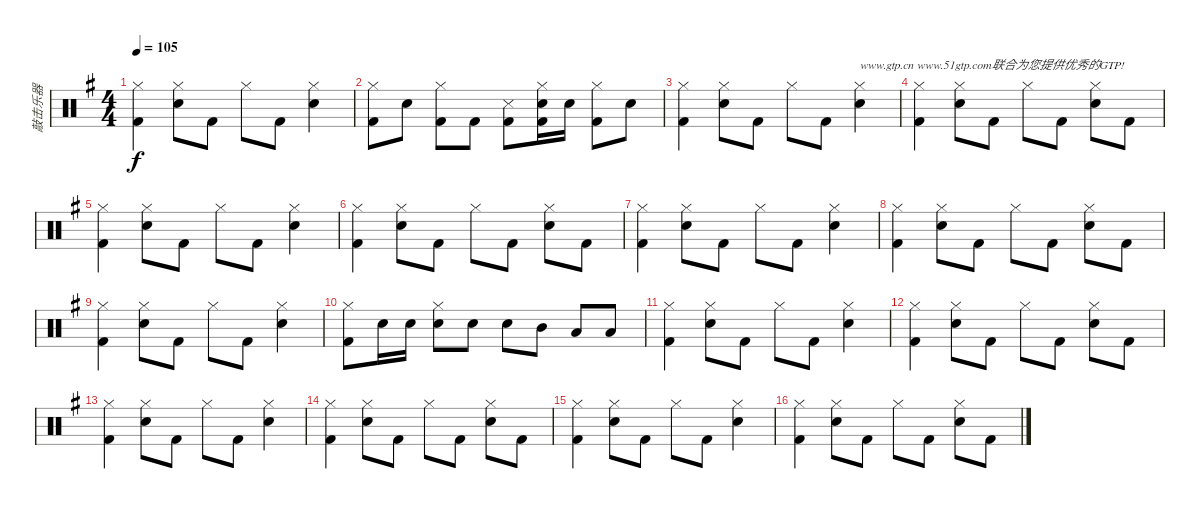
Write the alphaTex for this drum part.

\track ("敲击乐器" "敲击乐器") {instrument percussion}
\staff {score}
\articulation defaults
\ts (4 4)
\tempo 105
\clef neutral
\ks g
("Hi-Hat (closed)" "Kick (hit) 2").4{dy f} ("Hi-Hat (closed)" "Snare (hit) 2").8 "Kick (hit) 2".8 "Hi-Hat (closed)".8 "Kick (hit) 2".8 ("Hi-Hat (closed)" "Snare (hit) 2").4 |
("Hi-Hat (closed)" "Kick (hit) 2").8 "Snare (hit) 2".8 ("Hi-Hat (closed)" "Kick (hit) 2").8 "Kick (hit) 2".8 ("Snare (side stick) 3" "Kick (hit) 2").8 ("Hi-Hat (closed)" "Snare (hit) 2" "Kick (hit) 2").16 "Snare (hit) 2".16 ("Hi-Hat (closed)" "Kick (hit) 2").8 "Snare (hit) 2".8 |
("Hi-Hat (closed)" "Kick (hit) 2").4 ("Hi-Hat (closed)" "Snare (hit) 2").8 "Kick (hit) 2".8 "Hi-Hat (closed)".8 "Kick (hit) 2".8 ("Hi-Hat (closed)" "Snare (hit) 2").4{txt "www.gtp.cn www.51gtp.com联合为您提供优秀的GTP!"} |
("Hi-Hat (closed)" "Kick (hit) 2").4 ("Hi-Hat (closed)" "Snare (hit) 2").8 "Kick (hit) 2".8 "Hi-Hat (closed)".8 "Kick (hit) 2".8 ("Hi-Hat (closed)" "Snare (hit) 2").8 "Kick (hit) 2".8 |
("Hi-Hat (closed)" "Kick (hit) 2").4 ("Hi-Hat (closed)" "Snare (hit) 2").8 "Kick (hit) 2".8 "Hi-Hat (closed)".8 "Kick (hit) 2".8 ("Hi-Hat (closed)" "Snare (hit) 2").4 |
("Hi-Hat (closed)" "Kick (hit) 2").4 ("Hi-Hat (closed)" "Snare (hit) 2").8 "Kick (hit) 2".8 "Hi-Hat (closed)".8 "Kick (hit) 2".8 ("Hi-Hat (closed)" "Snare (hit) 2").8 "Kick (hit) 2".8 |
("Hi-Hat (closed)" "Kick (hit) 2").4 ("Hi-Hat (closed)" "Snare (hit) 2").8 "Kick (hit) 2".8 "Hi-Hat (closed)".8 "Kick (hit) 2".8 ("Hi-Hat (closed)" "Snare (hit) 2").4 |
("Hi-Hat (closed)" "Kick (hit) 2").4 ("Hi-Hat (closed)" "Snare (hit) 2").8 "Kick (hit) 2".8 "Hi-Hat (closed)".8 "Kick (hit) 2".8 ("Hi-Hat (closed)" "Snare (hit) 2").8 "Kick (hit) 2".8 |
("Hi-Hat (closed)" "Kick (hit) 2").4 ("Hi-Hat (closed)" "Snare (hit) 2").8 "Kick (hit) 2".8 "Hi-Hat (closed)".8 "Kick (hit) 2".8 ("Hi-Hat (closed)" "Snare (hit) 2").4 |
("Hi-Hat (closed)" "Kick (hit) 2").8 "Snare (hit) 2".16 "Snare (hit) 2".16 ("Hi-Hat (closed)" "Snare (hit) 2").8 "Snare (hit) 2".8 "Snare (hit) 2".8 "Mid Tom (hit)".8 "Low Tom (hit)".8 "Low Floor Tom (hit)".8 |
("Hi-Hat (closed)" "Kick (hit) 2").4 ("Hi-Hat (closed)" "Snare (hit) 2").8 "Kick (hit) 2".8 "Hi-Hat (closed)".8 "Kick (hit) 2".8 ("Hi-Hat (closed)" "Snare (hit) 2").4 |
("Hi-Hat (closed)" "Kick (hit) 2").4 ("Hi-Hat (closed)" "Snare (hit) 2").8 "Kick (hit) 2".8 "Hi-Hat (closed)".8 "Kick (hit) 2".8 ("Hi-Hat (closed)" "Snare (hit) 2").8 "Kick (hit) 2".8 |
("Hi-Hat (closed)" "Kick (hit) 2").4 ("Hi-Hat (closed)" "Snare (hit) 2").8 "Kick (hit) 2".8 "Hi-Hat (closed)".8 "Kick (hit) 2".8 ("Hi-Hat (closed)" "Snare (hit) 2").4 |
("Hi-Hat (closed)" "Kick (hit) 2").4 ("Hi-Hat (closed)" "Snare (hit) 2").8 "Kick (hit) 2".8 "Hi-Hat (closed)".8 "Kick (hit) 2".8 ("Hi-Hat (closed)" "Snare (hit) 2").8 "Kick (hit) 2".8 |
("Hi-Hat (closed)" "Kick (hit) 2").4 ("Hi-Hat (closed)" "Snare (hit) 2").8 "Kick (hit) 2".8 "Hi-Hat (closed)".8 "Kick (hit) 2".8 ("Hi-Hat (closed)" "Snare (hit) 2").4 |
("Hi-Hat (closed)" "Kick (hit) 2").4 ("Hi-Hat (closed)" "Snare (hit) 2").8 "Kick (hit) 2".8 "Hi-Hat (closed)".8 "Kick (hit) 2".8 ("Hi-Hat (closed)" "Snare (hit) 2").8 "Kick (hit) 2".8
